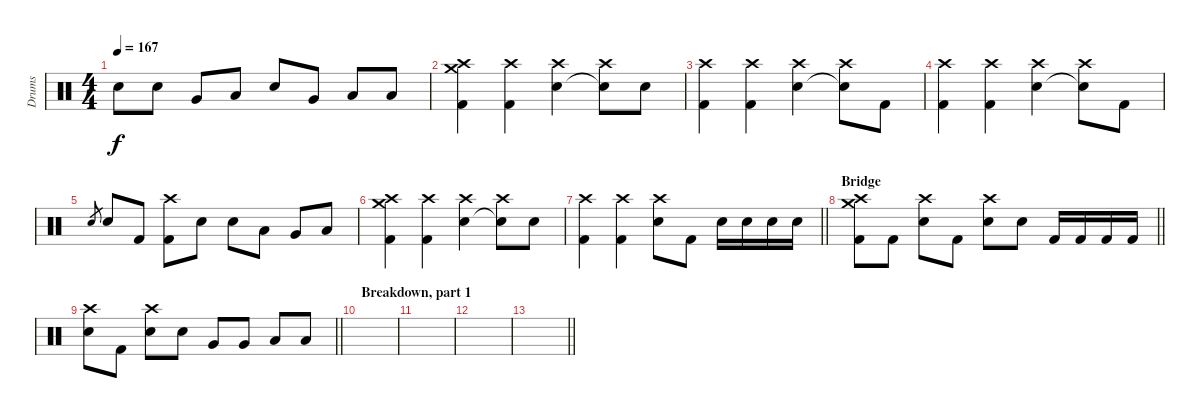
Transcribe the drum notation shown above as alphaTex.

\track ("Drums" "Drums") {instrument percussion}
\staff {score}
\articulation defaults
\ts (4 4)
\tempo 167
\clef neutral
\ks c "Electric Snare (hit)".8{dy f} "Electric Snare (hit)".8 "Very Low Tom (hit)".8 "Low Floor Tom (hit)".8 "Electric Snare (hit)".8 "Very Low Tom (hit)".8 "Low Floor Tom (hit)".8 "Low Floor Tom (hit)".8
|
("Kick (hit) 2" "Crash high (hit)" "Crash medium (hit)").4 ("Kick (hit) 2" "Crash high (hit)").4 ("Electric Snare (hit)" "Crash high (hit)").4 ("Snare (hit)"{t} "Crash high (hit)").8 "Electric Snare (hit)".8 |
("Kick (hit) 2" "Crash high (hit)").4 ("Kick (hit) 2" "Crash high (hit)").4 ("Electric Snare (hit)" "Crash high (hit)").4 ("Snare (hit)"{t} "Crash high (hit)").8 "Kick (hit) 2".8 |
("Kick (hit) 2" "Crash high (hit)").4 ("Kick (hit) 2" "Crash high (hit)").4 ("Electric Snare (hit)" "Crash high (hit)").4 ("Snare (hit)"{t} "Crash high (hit)").8 "Kick (hit) 2".8 |
"Electric Snare (hit)".8{gr} "Electric Snare (hit)".8 "Kick (hit) 2".8 ("Kick (hit) 2" "Crash high (hit)").8 "Electric Snare (hit)".8 "Electric Snare (hit)".8 "Low Tom (hit)".8 "Very Low Tom (hit)".8 "Low Floor Tom (hit)".8 |
("Kick (hit) 2" "Crash high (hit)" "Crash medium (hit)").4 ("Kick (hit) 2" "Crash high (hit)").4 ("Electric Snare (hit)" "Crash high (hit)").4 ("Snare (hit)"{t} "Crash high (hit)").8 "Electric Snare (hit)".8 |
\barLineRight lightlight
("Kick (hit) 2" "Crash high (hit)").4 ("Kick (hit) 2" "Crash high (hit)").4 ("Electric Snare (hit)" "Crash high (hit)").8 "Kick (hit) 2".8 "Electric Snare (hit)".16 "Electric Snare (hit)".16 "Electric Snare (hit)".16 "Electric Snare (hit)".16 |
\section ("" "Bridge")
\barLineRight lightlight
("Kick (hit) 2" "Crash high (hit)" "Crash medium (hit)").8 "Kick (hit) 2".8 ("Electric Snare (hit)" "Crash high (hit)").8 "Kick (hit) 2".8 ("Electric Snare (hit)" "Crash high (hit)").8 "Electric Snare (hit)".8 "Kick (hit) 2".16 "Kick (hit) 2".16 "Kick (hit) 2".16 "Kick (hit) 2".16 |
\barLineRight lightlight
("Electric Snare (hit)" "Crash high (hit)").8 "Kick (hit) 2".8 ("Electric Snare (hit)" "Crash high (hit)").8 "Electric Snare (hit)".8 "Very Low Tom (hit)".8 "Very Low Tom (hit)".8 "Low Floor Tom (hit)".8 "Low Floor Tom (hit)".8 |
\section ("" "Breakdown, part 1")
|
|
|
\barLineRight lightlight
